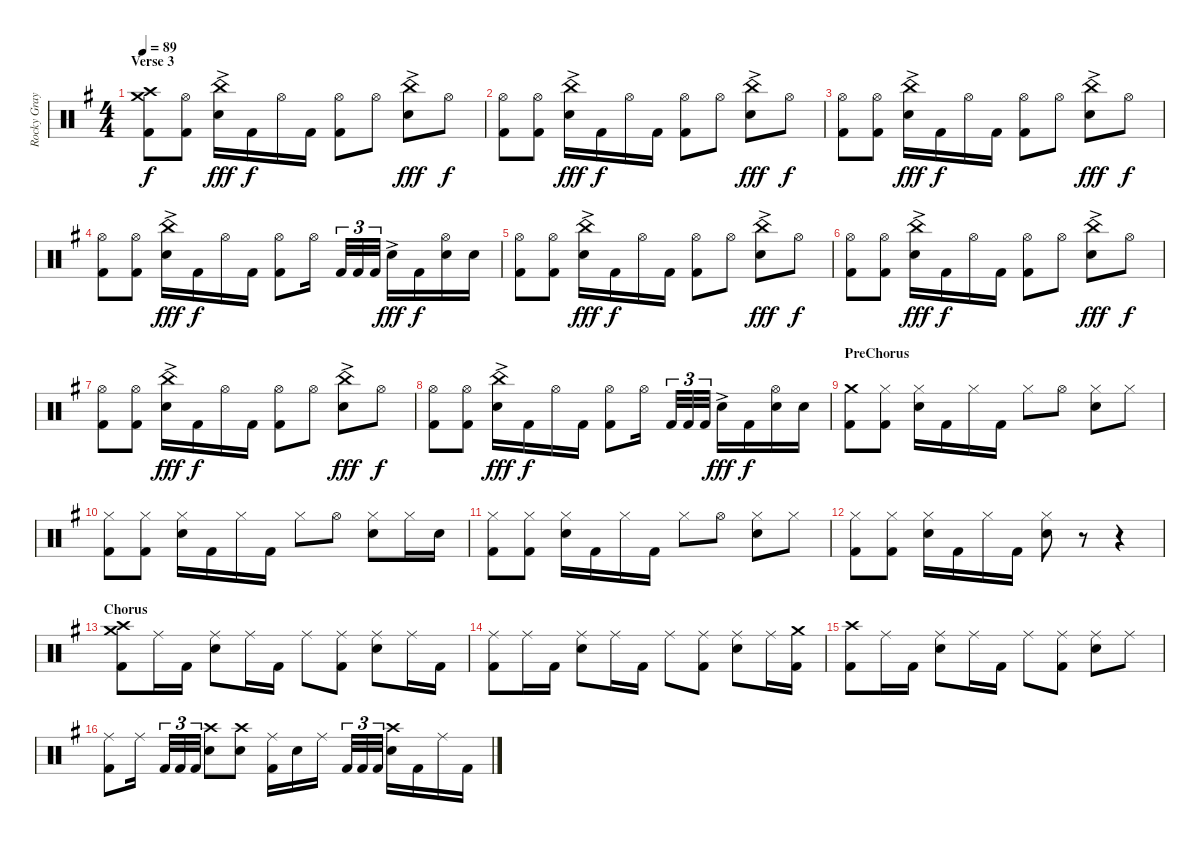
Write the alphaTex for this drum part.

\track ("Rocky Gray" "Rocky Gray") {instrument percussion}
\staff {score}
\articulation defaults
\ts (4 4)
\section ("" "Verse 3")
\tempo 89
\clef neutral
\ks g
("Crash high (hit)" "Crash medium (hit)" "Kick (hit) 2").8{dy f} ("Hi-Hat (open)" "Kick (hit) 2").8 ("China (hit)"{ac} "Snare (hit) 2"{ac}).16{dy fff} "Kick (hit) 2".16{dy f} "Hi-Hat (open)".16 "Kick (hit) 2".16 ("Hi-Hat (open)" "Kick (hit) 2").8 "Hi-Hat (open)".8 ("China (hit)"{ac} "Snare (hit) 2"{ac}).8{dy fff} "Hi-Hat (open)".8{dy f} |
("Hi-Hat (open)" "Kick (hit) 2").8 ("Hi-Hat (open)" "Kick (hit) 2").8 ("China (hit)"{ac} "Snare (hit) 2"{ac}).16{dy fff} "Kick (hit) 2".16{dy f} "Hi-Hat (open)".16 "Kick (hit) 2".16 ("Hi-Hat (open)" "Kick (hit) 2").8 "Hi-Hat (open)".8 ("China (hit)"{ac} "Snare (hit) 2"{ac}).8{dy fff} "Hi-Hat (open)".8{dy f} |
("Hi-Hat (open)" "Kick (hit) 2").8 ("Hi-Hat (open)" "Kick (hit) 2").8 ("China (hit)"{ac} "Snare (hit) 2"{ac}).16{dy fff} "Kick (hit) 2".16{dy f} "Hi-Hat (open)".16 "Kick (hit) 2".16 ("Hi-Hat (open)" "Kick (hit) 2").8 "Hi-Hat (open)".8 ("China (hit)"{ac} "Snare (hit) 2"{ac}).8{dy fff} "Hi-Hat (open)".8{dy f} |
("Hi-Hat (open)" "Kick (hit) 2").8 ("Hi-Hat (open)" "Kick (hit) 2").8 ("China (hit)"{ac} "Snare (hit) 2"{ac}).16{dy fff} "Kick (hit) 2".16{dy f} "Hi-Hat (open)".16 "Kick (hit) 2".16 ("Hi-Hat (open)" "Kick (hit) 2").8 "Hi-Hat (open)".16 "Kick (hit) 2".32{tu (3 2)} "Kick (hit) 2".32{tu (3 2)} "Kick (hit) 2".32{tu (3 2)} "Snare (hit) 2"{ac}.16{dy fff} "Kick (hit) 2".16{dy f} ("Hi-Hat (open)" "Snare (hit) 2").16 "Snare (hit) 2".16 |
("Hi-Hat (open)" "Kick (hit) 2").8 ("Hi-Hat (open)" "Kick (hit) 2").8 ("China (hit)"{ac} "Snare (hit) 2"{ac}).16{dy fff} "Kick (hit) 2".16{dy f} "Hi-Hat (open)".16 "Kick (hit) 2".16 ("Hi-Hat (open)" "Kick (hit) 2").8 "Hi-Hat (open)".8 ("China (hit)"{ac} "Snare (hit) 2"{ac}).8{dy fff} "Hi-Hat (open)".8{dy f} |
("Hi-Hat (open)" "Kick (hit) 2").8 ("Hi-Hat (open)" "Kick (hit) 2").8 ("China (hit)"{ac} "Snare (hit) 2"{ac}).16{dy fff} "Kick (hit) 2".16{dy f} "Hi-Hat (open)".16 "Kick (hit) 2".16 ("Hi-Hat (open)" "Kick (hit) 2").8 "Hi-Hat (open)".8 ("China (hit)"{ac} "Snare (hit) 2"{ac}).8{dy fff} "Hi-Hat (open)".8{dy f} |
("Hi-Hat (open)" "Kick (hit) 2").8 ("Hi-Hat (open)" "Kick (hit) 2").8 ("China (hit)"{ac} "Snare (hit) 2"{ac}).16{dy fff} "Kick (hit) 2".16{dy f} "Hi-Hat (open)".16 "Kick (hit) 2".16 ("Hi-Hat (open)" "Kick (hit) 2").8 "Hi-Hat (open)".8 ("China (hit)"{ac} "Snare (hit) 2"{ac}).8{dy fff} "Hi-Hat (open)".8{dy f} |
("Hi-Hat (open)" "Kick (hit) 2").8 ("Hi-Hat (open)" "Kick (hit) 2").8 ("China (hit)"{ac} "Snare (hit) 2"{ac}).16{dy fff} "Kick (hit) 2".16{dy f} "Hi-Hat (open)".16 "Kick (hit) 2".16 ("Hi-Hat (open)" "Kick (hit) 2").8 "Hi-Hat (open)".16 "Kick (hit) 2".32{tu (3 2)} "Kick (hit) 2".32{tu (3 2)} "Kick (hit) 2".32{tu (3 2)} "Snare (hit) 2"{ac}.16{dy fff} "Kick (hit) 2".16{dy f} ("Hi-Hat (open)" "Snare (hit) 2").16 "Snare (hit) 2".16 |
\section ("" "PreChorus")
("Crash medium (hit)" "Kick (hit) 2").8 ("Hi-Hat (closed)" "Kick (hit) 2").8 ("Hi-Hat (closed)" "Snare (hit) 2").16 "Kick (hit) 2".16 "Hi-Hat (closed)".16 "Kick (hit) 2".16 "Hi-Hat (closed)".8 "Hi-Hat (open)".8 ("Hi-Hat (closed)" "Snare (hit) 2").8 "Hi-Hat (closed)".8 |
("Hi-Hat (closed)" "Kick (hit) 2").8 ("Hi-Hat (closed)" "Kick (hit) 2").8 ("Hi-Hat (closed)" "Snare (hit) 2").16 "Kick (hit) 2".16 "Hi-Hat (closed)".16 "Kick (hit) 2".16 "Hi-Hat (closed)".8 "Hi-Hat (open)".8 ("Hi-Hat (closed)" "Snare (hit) 2").8 "Hi-Hat (closed)".16 "Snare (hit) 2".16 |
("Hi-Hat (closed)" "Kick (hit) 2").8 ("Hi-Hat (closed)" "Kick (hit) 2").8 ("Hi-Hat (closed)" "Snare (hit) 2").16 "Kick (hit) 2".16 "Hi-Hat (closed)".16 "Kick (hit) 2".16 "Hi-Hat (closed)".8 "Hi-Hat (open)".8 ("Hi-Hat (closed)" "Snare (hit) 2").8 "Hi-Hat (closed)".8 |
("Hi-Hat (closed)" "Kick (hit) 2").8 ("Hi-Hat (closed)" "Kick (hit) 2").8 ("Hi-Hat (closed)" "Snare (hit) 2").16 "Kick (hit) 2".16 "Hi-Hat (closed)".16 "Kick (hit) 2".16 ("Hi-Hat (closed)" "Snare (hit) 2").8 r.8 r.4 |
\section ("" "Chorus")
("Crash high (hit)" "Crash medium (hit)" "Kick (hit) 2").8 "Ride (middle)".16 "Kick (hit) 2".16 ("Ride (middle)" "Snare (hit) 2").8 "Ride (middle)".16 "Kick (hit) 2".16 "Ride (middle)".8 ("Ride (middle)" "Kick (hit) 2").8 ("Ride (middle)" "Snare (hit) 2").8 "Ride (middle)".16 "Kick (hit) 2".16 |
("Ride (middle)" "Kick (hit) 2").8 "Ride (middle)".16 "Kick (hit) 2".16 ("Ride (middle)" "Snare (hit) 2").8 "Ride (middle)".16 "Kick (hit) 2".16 "Ride (middle)".8 ("Ride (middle)" "Kick (hit) 2").8 ("Ride (middle)" "Snare (hit) 2").8 "Ride (middle)".16 ("Crash medium (hit)" "Kick (hit) 2").16 |
("Crash high (hit)" "Kick (hit) 2").8 "Ride (middle)".16 "Kick (hit) 2".16 ("Ride (middle)" "Snare (hit) 2").8 "Ride (middle)".16 "Kick (hit) 2".16 "Ride (middle)".8 ("Ride (middle)" "Kick (hit) 2").8 ("Ride (middle)" "Snare (hit) 2").8 "Ride (middle)".8 |
("Ride (middle)" "Kick (hit) 2").8 "Ride (middle)".16 "Kick (hit) 2".32{tu (3 2)} "Kick (hit) 2".32{tu (3 2)} "Kick (hit) 2".32{tu (3 2)} ("Crash high (hit)" "Snare (hit) 2").8 ("Crash high (hit)" "Snare (hit) 2").8 ("Ride (middle)" "Kick (hit) 2").16 "Snare (hit) 2".16 "Ride (middle)".16 "Kick (hit) 2".32{tu (3 2)} "Kick (hit) 2".32{tu (3 2)} "Kick (hit) 2".32{tu (3 2)} ("Crash high (hit)" "Snare (hit) 2").16 "Kick (hit) 2".16 "Ride (middle)".16 "Kick (hit) 2".16
